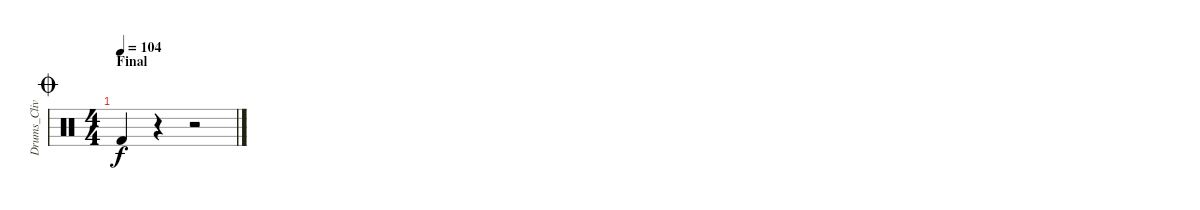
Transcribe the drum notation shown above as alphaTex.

\track ("Drums_CliveBurr" "Drums_Cliv") {instrument percussion}
\staff {score}
\articulation defaults
\ts (4 4)
\section ("" "Final")
\jump coda
\tempo 104
\clef neutral
\ks c "Kick (hit) 2".4{dy f}
r.4 r.2
